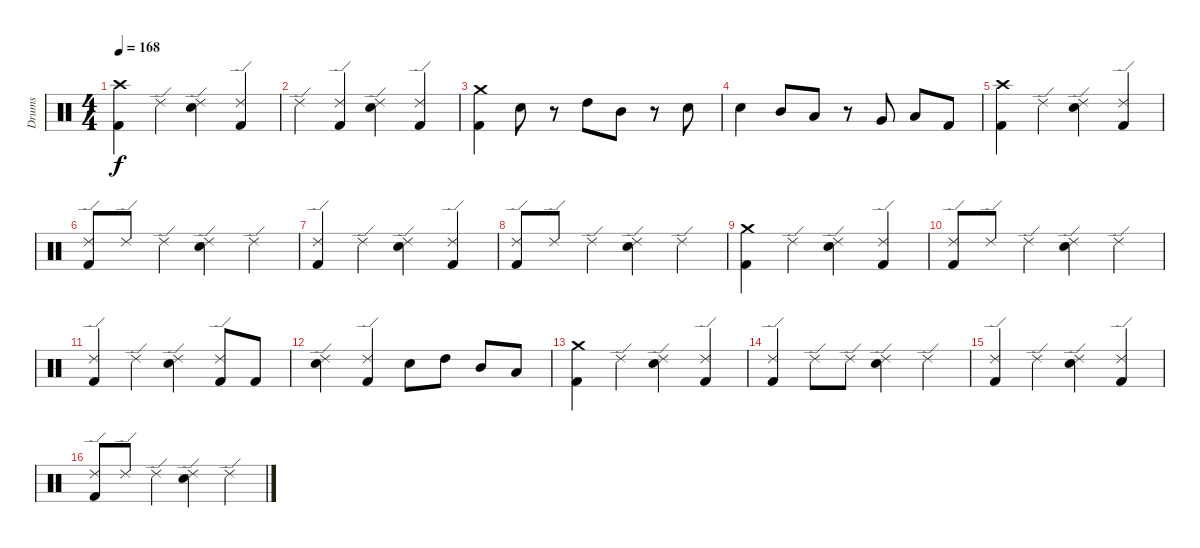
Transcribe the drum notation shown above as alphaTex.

\track ("Drums" "Drums") {instrument percussion}
\staff {score}
\articulation defaults
\ts (4 4)
\tempo 168
\clef neutral
\ks c
("Kick (hit) 2" "Crash high (hit)").4{dy f} "Ride (edge) 2".4 ("Electric Snare (hit)" "Ride (edge) 2").4 ("Kick (hit) 2" "Ride (edge) 2").4 |
"Ride (edge) 2".4 ("Kick (hit) 2" "Ride (edge) 2").4 ("Electric Snare (hit)" "Ride (edge) 2").4 ("Kick (hit) 2" "Ride (edge) 2").4 |
("Kick (hit) 2" "Crash medium (hit)").4 "Electric Snare (hit)".8 r.8 "High Tom (hit)".8 "Mid Tom (hit)".8 r.8 "Electric Snare (hit)".8 |
"Electric Snare (hit)".4 "Mid Tom (hit)".8 "Low Tom (hit)".8 r.8 "Very Low Tom (hit)".8 "Low Floor Tom (hit)".8 "Kick (hit) 2".8 |
\section ("" "")
("Kick (hit) 2" "Crash high (hit)").4 "Ride (edge) 2".4 ("Electric Snare (hit)" "Ride (edge) 2").4 ("Kick (hit) 2" "Ride (edge) 2").4 |
("Kick (hit) 2" "Ride (edge) 2").8 "Ride (edge) 2".8 "Ride (edge) 2".4 ("Electric Snare (hit)" "Ride (edge) 2").4 "Ride (edge) 2".4 |
("Kick (hit) 2" "Ride (edge) 2").4 "Ride (edge) 2".4 ("Electric Snare (hit)" "Ride (edge) 2").4 ("Kick (hit) 2" "Ride (edge) 2").4 |
("Kick (hit) 2" "Ride (edge) 2").8 "Ride (edge) 2".8 "Ride (edge) 2".4 ("Electric Snare (hit)" "Ride (edge) 2").4 "Ride (edge) 2".4 |
("Kick (hit) 2" "Crash medium (hit)").4 "Ride (edge) 2".4 ("Electric Snare (hit)" "Ride (edge) 2").4 ("Kick (hit) 2" "Ride (edge) 2").4 |
("Kick (hit) 2" "Ride (edge) 2").8 "Ride (edge) 2".8 "Ride (edge) 2".4 ("Electric Snare (hit)" "Ride (edge) 2").4 "Ride (edge) 2".4 |
("Kick (hit) 2" "Ride (edge) 2").4 "Ride (edge) 2".4 ("Electric Snare (hit)" "Ride (edge) 2").4 ("Kick (hit) 2" "Ride (edge) 2").8 "Kick (hit) 2".8 |
("Electric Snare (hit)" "Ride (edge) 2").4 ("Kick (hit) 2" "Ride (edge) 2").4 "Electric Snare (hit)".8 "High Tom (hit)".8 "Mid Tom (hit)".8 "Low Tom (hit)".8 |
\section ("" "")
("Kick (hit) 2" "Crash medium (hit)").4 "Ride (edge) 2".4 ("Electric Snare (hit)" "Ride (edge) 2").4 ("Kick (hit) 2" "Ride (edge) 2").4 |
("Kick (hit) 2" "Ride (edge) 2").4 "Ride (edge) 2".8 "Ride (edge) 2".8 ("Electric Snare (hit)" "Ride (edge) 2").4 "Ride (edge) 2".4 |
("Kick (hit) 2" "Ride (edge) 2").4 "Ride (edge) 2".4 ("Electric Snare (hit)" "Ride (edge) 2").4 ("Kick (hit) 2" "Ride (edge) 2").4 |
("Kick (hit) 2" "Ride (edge) 2").8 "Ride (edge) 2".8 "Ride (edge) 2".4 ("Electric Snare (hit)" "Ride (edge) 2").4 "Ride (edge) 2".4
